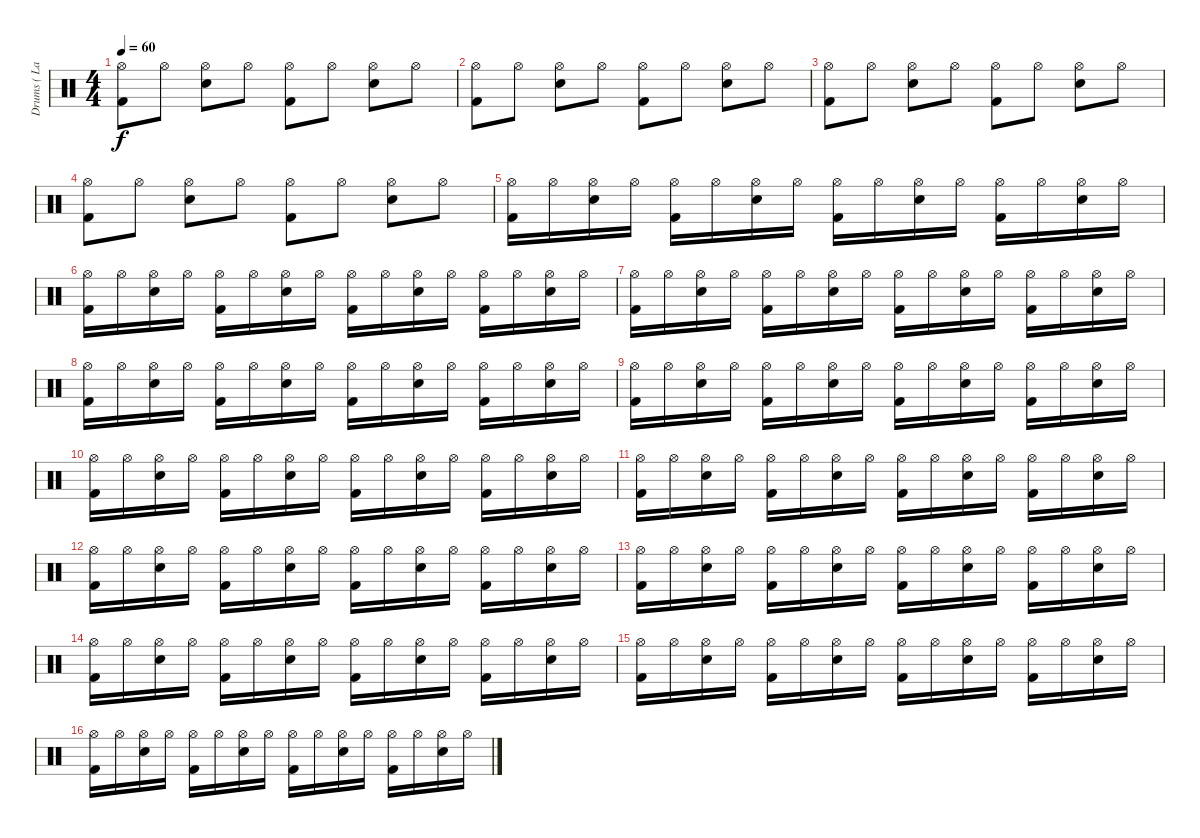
\track ("Drums ( Lars )" "Drums ( La") {instrument percussion}
\staff {score}
\articulation defaults
\ts (4 4)
\tempo 60
\clef neutral
\ks c
("Kick (hit) 2" "Hi-Hat (open)").8{dy f} "Hi-Hat (open)".8 ("Snare (hit) 2" "Hi-Hat (open)").8 "Hi-Hat (open)".8 ("Kick (hit) 2" "Hi-Hat (open)").8 "Hi-Hat (open)".8 ("Snare (hit) 2" "Hi-Hat (open)").8 "Hi-Hat (open)".8 |
("Kick (hit) 2" "Hi-Hat (open)").8 "Hi-Hat (open)".8 ("Snare (hit) 2" "Hi-Hat (open)").8 "Hi-Hat (open)".8 ("Kick (hit) 2" "Hi-Hat (open)").8 "Hi-Hat (open)".8 ("Snare (hit) 2" "Hi-Hat (open)").8 "Hi-Hat (open)".8 |
("Kick (hit) 2" "Hi-Hat (open)").8 "Hi-Hat (open)".8 ("Snare (hit) 2" "Hi-Hat (open)").8 "Hi-Hat (open)".8 ("Kick (hit) 2" "Hi-Hat (open)").8 "Hi-Hat (open)".8 ("Snare (hit) 2" "Hi-Hat (open)").8 "Hi-Hat (open)".8 |
("Kick (hit) 2" "Hi-Hat (open)").8 "Hi-Hat (open)".8 ("Snare (hit) 2" "Hi-Hat (open)").8 "Hi-Hat (open)".8 ("Kick (hit) 2" "Hi-Hat (open)").8 "Hi-Hat (open)".8 ("Snare (hit) 2" "Hi-Hat (open)").8 "Hi-Hat (open)".8 |
("Kick (hit) 2" "Hi-Hat (open)").16 "Hi-Hat (open)".16 ("Snare (hit) 2" "Hi-Hat (open)").16 "Hi-Hat (open)".16 ("Kick (hit) 2" "Hi-Hat (open)").16 "Hi-Hat (open)".16 ("Snare (hit) 2" "Hi-Hat (open)").16 "Hi-Hat (open)".16 ("Kick (hit) 2" "Hi-Hat (open)").16 "Hi-Hat (open)".16 ("Snare (hit) 2" "Hi-Hat (open)").16 "Hi-Hat (open)".16 ("Kick (hit) 2" "Hi-Hat (open)").16 "Hi-Hat (open)".16 ("Snare (hit) 2" "Hi-Hat (open)").16 "Hi-Hat (open)".16 |
("Kick (hit) 2" "Hi-Hat (open)").16 "Hi-Hat (open)".16 ("Snare (hit) 2" "Hi-Hat (open)").16 "Hi-Hat (open)".16 ("Kick (hit) 2" "Hi-Hat (open)").16 "Hi-Hat (open)".16 ("Snare (hit) 2" "Hi-Hat (open)").16 "Hi-Hat (open)".16 ("Kick (hit) 2" "Hi-Hat (open)").16 "Hi-Hat (open)".16 ("Snare (hit) 2" "Hi-Hat (open)").16 "Hi-Hat (open)".16 ("Kick (hit) 2" "Hi-Hat (open)").16 "Hi-Hat (open)".16 ("Snare (hit) 2" "Hi-Hat (open)").16 "Hi-Hat (open)".16 |
("Kick (hit) 2" "Hi-Hat (open)").16 "Hi-Hat (open)".16 ("Snare (hit) 2" "Hi-Hat (open)").16 "Hi-Hat (open)".16 ("Kick (hit) 2" "Hi-Hat (open)").16 "Hi-Hat (open)".16 ("Snare (hit) 2" "Hi-Hat (open)").16 "Hi-Hat (open)".16 ("Kick (hit) 2" "Hi-Hat (open)").16 "Hi-Hat (open)".16 ("Snare (hit) 2" "Hi-Hat (open)").16 "Hi-Hat (open)".16 ("Kick (hit) 2" "Hi-Hat (open)").16 "Hi-Hat (open)".16 ("Snare (hit) 2" "Hi-Hat (open)").16 "Hi-Hat (open)".16 |
("Kick (hit) 2" "Hi-Hat (open)").16 "Hi-Hat (open)".16 ("Snare (hit) 2" "Hi-Hat (open)").16 "Hi-Hat (open)".16 ("Kick (hit) 2" "Hi-Hat (open)").16 "Hi-Hat (open)".16 ("Snare (hit) 2" "Hi-Hat (open)").16 "Hi-Hat (open)".16 ("Kick (hit) 2" "Hi-Hat (open)").16 "Hi-Hat (open)".16 ("Snare (hit) 2" "Hi-Hat (open)").16 "Hi-Hat (open)".16 ("Kick (hit) 2" "Hi-Hat (open)").16 "Hi-Hat (open)".16 ("Snare (hit) 2" "Hi-Hat (open)").16 "Hi-Hat (open)".16 |
("Kick (hit) 2" "Hi-Hat (open)").16 "Hi-Hat (open)".16 ("Snare (hit) 2" "Hi-Hat (open)").16 "Hi-Hat (open)".16 ("Kick (hit) 2" "Hi-Hat (open)").16 "Hi-Hat (open)".16 ("Snare (hit) 2" "Hi-Hat (open)").16 "Hi-Hat (open)".16 ("Kick (hit) 2" "Hi-Hat (open)").16 "Hi-Hat (open)".16 ("Snare (hit) 2" "Hi-Hat (open)").16 "Hi-Hat (open)".16 ("Kick (hit) 2" "Hi-Hat (open)").16 "Hi-Hat (open)".16 ("Snare (hit) 2" "Hi-Hat (open)").16 "Hi-Hat (open)".16 |
("Kick (hit) 2" "Hi-Hat (open)").16 "Hi-Hat (open)".16 ("Snare (hit) 2" "Hi-Hat (open)").16 "Hi-Hat (open)".16 ("Kick (hit) 2" "Hi-Hat (open)").16 "Hi-Hat (open)".16 ("Snare (hit) 2" "Hi-Hat (open)").16 "Hi-Hat (open)".16 ("Kick (hit) 2" "Hi-Hat (open)").16 "Hi-Hat (open)".16 ("Snare (hit) 2" "Hi-Hat (open)").16 "Hi-Hat (open)".16 ("Kick (hit) 2" "Hi-Hat (open)").16 "Hi-Hat (open)".16 ("Snare (hit) 2" "Hi-Hat (open)").16 "Hi-Hat (open)".16 |
("Kick (hit) 2" "Hi-Hat (open)").16 "Hi-Hat (open)".16 ("Snare (hit) 2" "Hi-Hat (open)").16 "Hi-Hat (open)".16 ("Kick (hit) 2" "Hi-Hat (open)").16 "Hi-Hat (open)".16 ("Snare (hit) 2" "Hi-Hat (open)").16 "Hi-Hat (open)".16 ("Kick (hit) 2" "Hi-Hat (open)").16 "Hi-Hat (open)".16 ("Snare (hit) 2" "Hi-Hat (open)").16 "Hi-Hat (open)".16 ("Kick (hit) 2" "Hi-Hat (open)").16 "Hi-Hat (open)".16 ("Snare (hit) 2" "Hi-Hat (open)").16 "Hi-Hat (open)".16 |
("Kick (hit) 2" "Hi-Hat (open)").16 "Hi-Hat (open)".16 ("Snare (hit) 2" "Hi-Hat (open)").16 "Hi-Hat (open)".16 ("Kick (hit) 2" "Hi-Hat (open)").16 "Hi-Hat (open)".16 ("Snare (hit) 2" "Hi-Hat (open)").16 "Hi-Hat (open)".16 ("Kick (hit) 2" "Hi-Hat (open)").16 "Hi-Hat (open)".16 ("Snare (hit) 2" "Hi-Hat (open)").16 "Hi-Hat (open)".16 ("Kick (hit) 2" "Hi-Hat (open)").16 "Hi-Hat (open)".16 ("Snare (hit) 2" "Hi-Hat (open)").16 "Hi-Hat (open)".16 |
("Kick (hit) 2" "Hi-Hat (open)").16 "Hi-Hat (open)".16 ("Snare (hit) 2" "Hi-Hat (open)").16 "Hi-Hat (open)".16 ("Kick (hit) 2" "Hi-Hat (open)").16 "Hi-Hat (open)".16 ("Snare (hit) 2" "Hi-Hat (open)").16 "Hi-Hat (open)".16 ("Kick (hit) 2" "Hi-Hat (open)").16 "Hi-Hat (open)".16 ("Snare (hit) 2" "Hi-Hat (open)").16 "Hi-Hat (open)".16 ("Kick (hit) 2" "Hi-Hat (open)").16 "Hi-Hat (open)".16 ("Snare (hit) 2" "Hi-Hat (open)").16 "Hi-Hat (open)".16 |
("Kick (hit) 2" "Hi-Hat (open)").16 "Hi-Hat (open)".16 ("Snare (hit) 2" "Hi-Hat (open)").16 "Hi-Hat (open)".16 ("Kick (hit) 2" "Hi-Hat (open)").16 "Hi-Hat (open)".16 ("Snare (hit) 2" "Hi-Hat (open)").16 "Hi-Hat (open)".16 ("Kick (hit) 2" "Hi-Hat (open)").16 "Hi-Hat (open)".16 ("Snare (hit) 2" "Hi-Hat (open)").16 "Hi-Hat (open)".16 ("Kick (hit) 2" "Hi-Hat (open)").16 "Hi-Hat (open)".16 ("Snare (hit) 2" "Hi-Hat (open)").16 "Hi-Hat (open)".16 |
("Kick (hit) 2" "Hi-Hat (open)").16 "Hi-Hat (open)".16 ("Snare (hit) 2" "Hi-Hat (open)").16 "Hi-Hat (open)".16 ("Kick (hit) 2" "Hi-Hat (open)").16 "Hi-Hat (open)".16 ("Snare (hit) 2" "Hi-Hat (open)").16 "Hi-Hat (open)".16 ("Kick (hit) 2" "Hi-Hat (open)").16 "Hi-Hat (open)".16 ("Snare (hit) 2" "Hi-Hat (open)").16 "Hi-Hat (open)".16 ("Kick (hit) 2" "Hi-Hat (open)").16 "Hi-Hat (open)".16 ("Snare (hit) 2" "Hi-Hat (open)").16 "Hi-Hat (open)".16 |
("Kick (hit) 2" "Hi-Hat (open)").16 "Hi-Hat (open)".16 ("Snare (hit) 2" "Hi-Hat (open)").16 "Hi-Hat (open)".16 ("Kick (hit) 2" "Hi-Hat (open)").16 "Hi-Hat (open)".16 ("Snare (hit) 2" "Hi-Hat (open)").16 "Hi-Hat (open)".16 ("Kick (hit) 2" "Hi-Hat (open)").16 "Hi-Hat (open)".16 ("Snare (hit) 2" "Hi-Hat (open)").16 "Hi-Hat (open)".16 ("Kick (hit) 2" "Hi-Hat (open)").16 "Hi-Hat (open)".16 ("Snare (hit) 2" "Hi-Hat (open)").16 "Hi-Hat (open)".16
